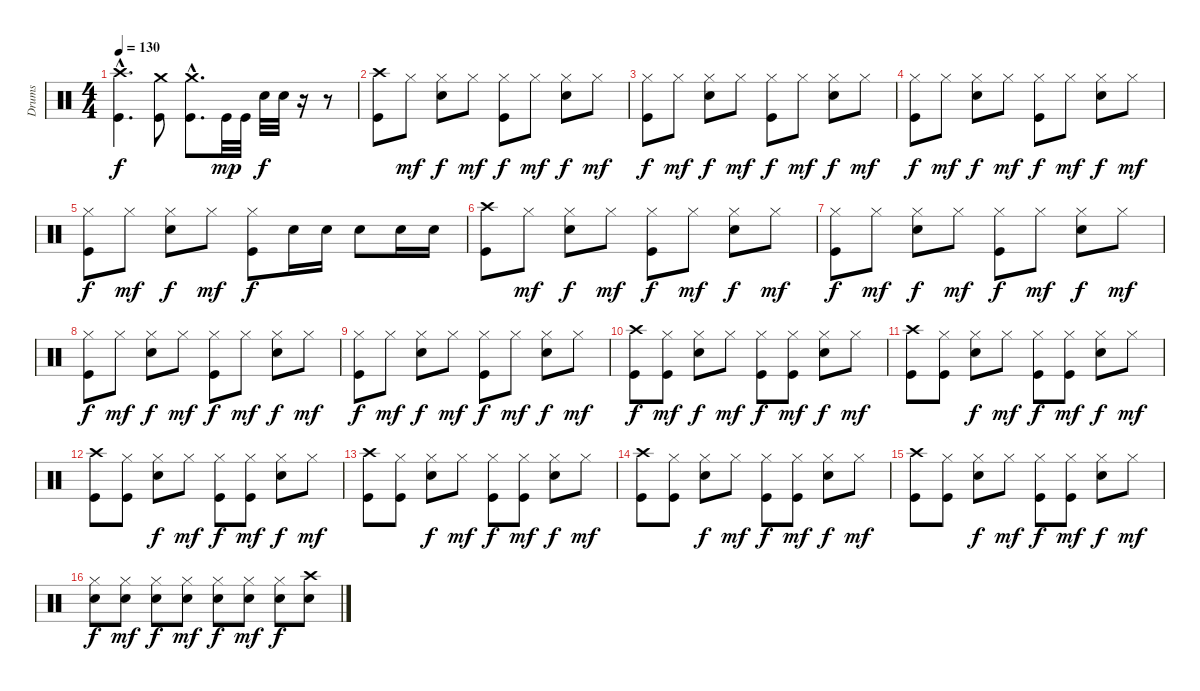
\track ("Drums" "Drums") {instrument percussion}
\staff {score}
\articulation defaults
\ts (4 4)
\tempo 130
\clef neutral
\ks c
("Kick (hit)"{hac} "Crash high (hit)"{hac}).4{d dy f} ("Kick (hit)" "Crash medium (hit)").8 ("Kick (hit)"{hac} "Crash medium (hit)"{hac}).8{d} "Kick (hit)".32{dy mp} "Kick (hit)".32 "Snare (hit) 2".32{dy f} "Snare (hit) 2".32 r.16 r.8 |
("Crash high (hit)" "Kick (hit)").8 "Hi-Hat (closed)".8{dy mf} ("Hi-Hat (closed)" "Snare (hit) 2").8{dy f} "Hi-Hat (closed)".8{dy mf} ("Hi-Hat (closed)" "Kick (hit)").8{dy f} "Hi-Hat (closed)".8{dy mf} ("Hi-Hat (closed)" "Snare (hit) 2").8{dy f} "Hi-Hat (closed)".8{dy mf} |
("Hi-Hat (closed)" "Kick (hit)").8{dy f} "Hi-Hat (closed)".8{dy mf} ("Hi-Hat (closed)" "Snare (hit) 2").8{dy f} "Hi-Hat (closed)".8{dy mf} ("Hi-Hat (closed)" "Kick (hit)").8{dy f} "Hi-Hat (closed)".8{dy mf} ("Hi-Hat (closed)" "Snare (hit) 2").8{dy f} "Hi-Hat (closed)".8{dy mf} |
("Hi-Hat (closed)" "Kick (hit)").8{dy f} "Hi-Hat (closed)".8{dy mf} ("Hi-Hat (closed)" "Snare (hit) 2").8{dy f} "Hi-Hat (closed)".8{dy mf} ("Hi-Hat (closed)" "Kick (hit)").8{dy f} "Hi-Hat (closed)".8{dy mf} ("Hi-Hat (closed)" "Snare (hit) 2").8{dy f} "Hi-Hat (closed)".8{dy mf} |
("Hi-Hat (closed)" "Kick (hit)").8{dy f} "Hi-Hat (closed)".8{dy mf} ("Hi-Hat (closed)" "Snare (hit) 2").8{dy f} "Hi-Hat (closed)".8{dy mf} ("Hi-Hat (closed)" "Kick (hit)").8{dy f} "Snare (hit) 2".16 "Snare (hit) 2".16 "Snare (hit) 2".8 "Snare (hit) 2".16 "Snare (hit) 2".16 |
("Kick (hit)" "Crash high (hit)").8 "Hi-Hat (closed)".8{dy mf} ("Hi-Hat (closed)" "Snare (hit) 2").8{dy f} "Hi-Hat (closed)".8{dy mf} ("Hi-Hat (closed)" "Kick (hit)").8{dy f} "Hi-Hat (closed)".8{dy mf} ("Hi-Hat (closed)" "Snare (hit) 2").8{dy f} "Hi-Hat (closed)".8{dy mf} |
("Hi-Hat (closed)" "Kick (hit)").8{dy f} "Hi-Hat (closed)".8{dy mf} ("Hi-Hat (closed)" "Snare (hit) 2").8{dy f} "Hi-Hat (closed)".8{dy mf} ("Hi-Hat (closed)" "Kick (hit)").8{dy f} "Hi-Hat (closed)".8{dy mf} ("Hi-Hat (closed)" "Snare (hit) 2").8{dy f} "Hi-Hat (closed)".8{dy mf} |
("Hi-Hat (closed)" "Kick (hit)").8{dy f} "Hi-Hat (closed)".8{dy mf} ("Hi-Hat (closed)" "Snare (hit) 2").8{dy f} "Hi-Hat (closed)".8{dy mf} ("Hi-Hat (closed)" "Kick (hit)").8{dy f} "Hi-Hat (closed)".8{dy mf} ("Hi-Hat (closed)" "Snare (hit) 2").8{dy f} "Hi-Hat (closed)".8{dy mf} |
("Hi-Hat (closed)" "Kick (hit)").8{dy f} "Hi-Hat (closed)".8{dy mf} ("Hi-Hat (closed)" "Snare (hit) 2").8{dy f} "Hi-Hat (closed)".8{dy mf} ("Hi-Hat (closed)" "Kick (hit)").8{dy f} "Hi-Hat (closed)".8{dy mf} ("Hi-Hat (closed)" "Snare (hit) 2").8{dy f} "Hi-Hat (closed)".8{dy mf} |
("Kick (hit)" "Crash high (hit)").8{dy f} ("Hi-Hat (closed)" "Kick (hit)").8{dy mf} ("Hi-Hat (closed)" "Snare (hit) 2").8{dy f} "Hi-Hat (closed)".8{dy mf} ("Hi-Hat (closed)" "Kick (hit)").8{dy f} ("Hi-Hat (closed)" "Kick (hit)").8{dy mf} ("Hi-Hat (closed)" "Snare (hit) 2").8{dy f} "Hi-Hat (closed)".8{dy mf} |
("Kick (hit)" "Crash high (hit)").8 ("Hi-Hat (closed)" "Kick (hit)").8 ("Hi-Hat (closed)" "Snare (hit) 2").8{dy f} "Hi-Hat (closed)".8{dy mf} ("Hi-Hat (closed)" "Kick (hit)").8{dy f} ("Hi-Hat (closed)" "Kick (hit)").8{dy mf} ("Hi-Hat (closed)" "Snare (hit) 2").8{dy f} "Hi-Hat (closed)".8{dy mf} |
("Kick (hit)" "Crash high (hit)").8 ("Hi-Hat (closed)" "Kick (hit)").8 ("Hi-Hat (closed)" "Snare (hit) 2").8{dy f} "Hi-Hat (closed)".8{dy mf} ("Hi-Hat (closed)" "Kick (hit)").8{dy f} ("Hi-Hat (closed)" "Kick (hit)").8{dy mf} ("Hi-Hat (closed)" "Snare (hit) 2").8{dy f} "Hi-Hat (closed)".8{dy mf} |
("Kick (hit)" "Crash high (hit)").8 ("Hi-Hat (closed)" "Kick (hit)").8 ("Hi-Hat (closed)" "Snare (hit) 2").8{dy f} "Hi-Hat (closed)".8{dy mf} ("Hi-Hat (closed)" "Kick (hit)").8{dy f} ("Hi-Hat (closed)" "Kick (hit)").8{dy mf} ("Hi-Hat (closed)" "Snare (hit) 2").8{dy f} "Hi-Hat (closed)".8{dy mf} |
("Kick (hit)" "Crash high (hit)").8 ("Hi-Hat (closed)" "Kick (hit)").8 ("Hi-Hat (closed)" "Snare (hit) 2").8{dy f} "Hi-Hat (closed)".8{dy mf} ("Hi-Hat (closed)" "Kick (hit)").8{dy f} ("Hi-Hat (closed)" "Kick (hit)").8{dy mf} ("Hi-Hat (closed)" "Snare (hit) 2").8{dy f} "Hi-Hat (closed)".8{dy mf} |
("Kick (hit)" "Crash high (hit)").8 ("Hi-Hat (closed)" "Kick (hit)").8 ("Hi-Hat (closed)" "Snare (hit) 2").8{dy f} "Hi-Hat (closed)".8{dy mf} ("Hi-Hat (closed)" "Kick (hit)").8{dy f} ("Hi-Hat (closed)" "Kick (hit)").8{dy mf} ("Hi-Hat (closed)" "Snare (hit) 2").8{dy f} "Hi-Hat (closed)".8{dy mf} |
("Hi-Hat (closed)" "Snare (hit) 2").8{dy f} ("Hi-Hat (closed)" "Snare (hit) 2").8{dy mf} ("Hi-Hat (closed)" "Snare (hit) 2").8{dy f} ("Hi-Hat (closed)" "Snare (hit) 2").8{dy mf} ("Hi-Hat (closed)" "Snare (hit) 2").8{dy f} ("Hi-Hat (closed)" "Snare (hit) 2").8{dy mf} ("Hi-Hat (closed)" "Snare (hit) 2").8{dy f} ("Snare (hit) 2" "Crash high (hit)").8
